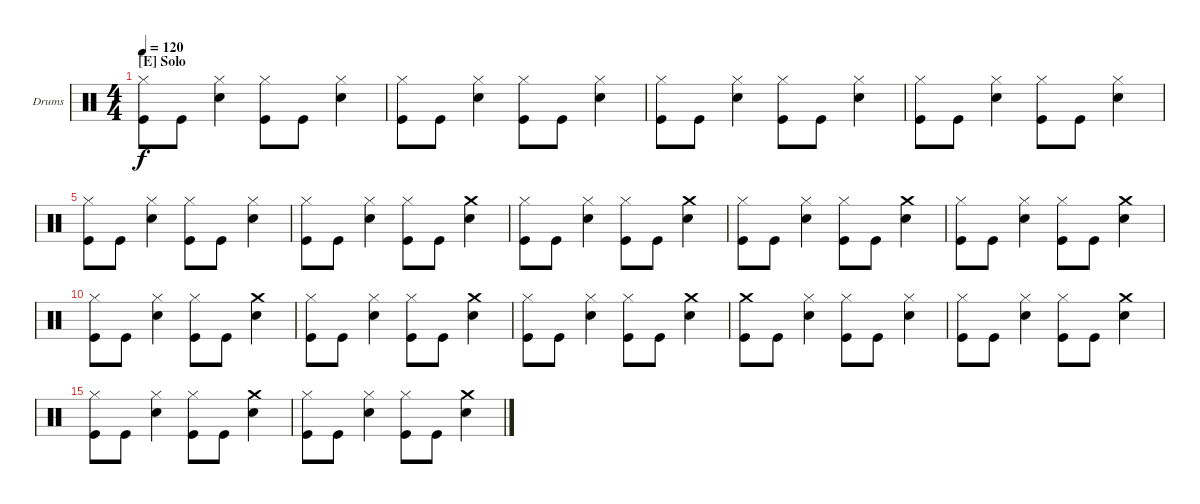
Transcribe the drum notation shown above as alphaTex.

\bracketExtendMode nobrackets
\firstSystemTrackNameOrientation horizontal
\otherSystemsTrackNameOrientation horizontal
\defaultBarNumberDisplay FirstOfSystem
\track ("Drumkit" "Drums") {instrument percussion}
\staff {score}
\articulation defaults
\ts (4 4)
\section ("E" "Solo")
\tempo 120
\clef neutral
\scale
0.25
\ks c
("Hi-Hat (closed)" "Kick (hit)").8{dy f} "Kick (hit)".8 ("Hi-Hat (closed)" "Snare (hit) 2").4 ("Hi-Hat (closed)" "Kick (hit)").8 "Kick (hit)".8 ("Hi-Hat (closed)" "Snare (hit) 2").4 |
\scale
0.25 ("Hi-Hat (closed)" "Kick (hit)").8 "Kick (hit)".8 ("Hi-Hat (closed)" "Snare (hit) 2").4 ("Hi-Hat (closed)" "Kick (hit)").8 "Kick (hit)".8 ("Hi-Hat (closed)" "Snare (hit) 2").4 |
\scale
0.25 ("Hi-Hat (closed)" "Kick (hit)").8 "Kick (hit)".8 ("Hi-Hat (closed)" "Snare (hit) 2").4 ("Hi-Hat (closed)" "Kick (hit)").8 "Kick (hit)".8 ("Hi-Hat (closed)" "Snare (hit) 2").4 |
\scale
0.25 ("Hi-Hat (closed)" "Kick (hit)").8 "Kick (hit)".8 ("Hi-Hat (closed)" "Snare (hit) 2").4 ("Hi-Hat (closed)" "Kick (hit)").8 "Kick (hit)".8 ("Hi-Hat (closed)" "Snare (hit) 2").4 |
\scale
0.25 ("Hi-Hat (closed)" "Kick (hit)").8 "Kick (hit)".8 ("Hi-Hat (closed)" "Snare (hit) 2").4 ("Hi-Hat (closed)" "Kick (hit)").8 "Kick (hit)".8 ("Hi-Hat (closed)" "Snare (hit) 2").4 |
\scale
0.25 ("Hi-Hat (closed)" "Kick (hit)").8 "Kick (hit)".8 ("Hi-Hat (closed)" "Snare (hit) 2").4 ("Hi-Hat (closed)" "Kick (hit)").8 "Kick (hit)".8 ("Crash medium (hit)" "Snare (hit) 2").4 |
\scale
0.25 ("Hi-Hat (closed)" "Kick (hit)").8 "Kick (hit)".8 ("Hi-Hat (closed)" "Snare (hit) 2").4 ("Hi-Hat (closed)" "Kick (hit)").8 "Kick (hit)".8 ("Crash medium (hit)" "Snare (hit) 2").4 |
\scale
0.25 ("Hi-Hat (closed)" "Kick (hit)").8 "Kick (hit)".8 ("Hi-Hat (closed)" "Snare (hit) 2").4 ("Hi-Hat (closed)" "Kick (hit)").8 "Kick (hit)".8 ("Crash medium (hit)" "Snare (hit) 2").4 |
\scale
0.25 ("Hi-Hat (closed)" "Kick (hit)").8 "Kick (hit)".8 ("Hi-Hat (closed)" "Snare (hit) 2").4 ("Hi-Hat (closed)" "Kick (hit)").8 "Kick (hit)".8 ("Crash medium (hit)" "Snare (hit) 2").4 |
\scale
0.25 ("Hi-Hat (closed)" "Kick (hit)").8 "Kick (hit)".8 ("Hi-Hat (closed)" "Snare (hit) 2").4 ("Hi-Hat (closed)" "Kick (hit)").8 "Kick (hit)".8 ("Crash medium (hit)" "Snare (hit) 2").4 |
\scale
0.25 ("Hi-Hat (closed)" "Kick (hit)").8 "Kick (hit)".8 ("Hi-Hat (closed)" "Snare (hit) 2").4 ("Hi-Hat (closed)" "Kick (hit)").8 "Kick (hit)".8 ("Crash medium (hit)" "Snare (hit) 2").4 |
\scale
0.25 ("Hi-Hat (closed)" "Kick (hit)").8 "Kick (hit)".8 ("Hi-Hat (closed)" "Snare (hit) 2").4 ("Hi-Hat (closed)" "Kick (hit)").8 "Kick (hit)".8 ("Crash medium (hit)" "Snare (hit) 2").4 |
\scale
0.25 ("Crash medium (hit)" "Kick (hit)").8 "Kick (hit)".8 ("Hi-Hat (closed)" "Snare (hit) 2").4 ("Hi-Hat (closed)" "Kick (hit)").8 "Kick (hit)".8 ("Hi-Hat (closed)" "Snare (hit) 2").4 |
\scale
0.25 ("Hi-Hat (closed)" "Kick (hit)").8 "Kick (hit)".8 ("Hi-Hat (closed)" "Snare (hit) 2").4 ("Hi-Hat (closed)" "Kick (hit)").8 "Kick (hit)".8 ("Crash medium (hit)" "Snare (hit) 2").4 |
\scale
0.25 ("Hi-Hat (closed)" "Kick (hit)").8 "Kick (hit)".8 ("Hi-Hat (closed)" "Snare (hit) 2").4 ("Hi-Hat (closed)" "Kick (hit)").8 "Kick (hit)".8 ("Crash medium (hit)" "Snare (hit) 2").4 |
\scale
0.25 ("Hi-Hat (closed)" "Kick (hit)").8 "Kick (hit)".8 ("Hi-Hat (closed)" "Snare (hit) 2").4 ("Hi-Hat (closed)" "Kick (hit)").8 "Kick (hit)".8 ("Crash medium (hit)" "Snare (hit) 2").4
